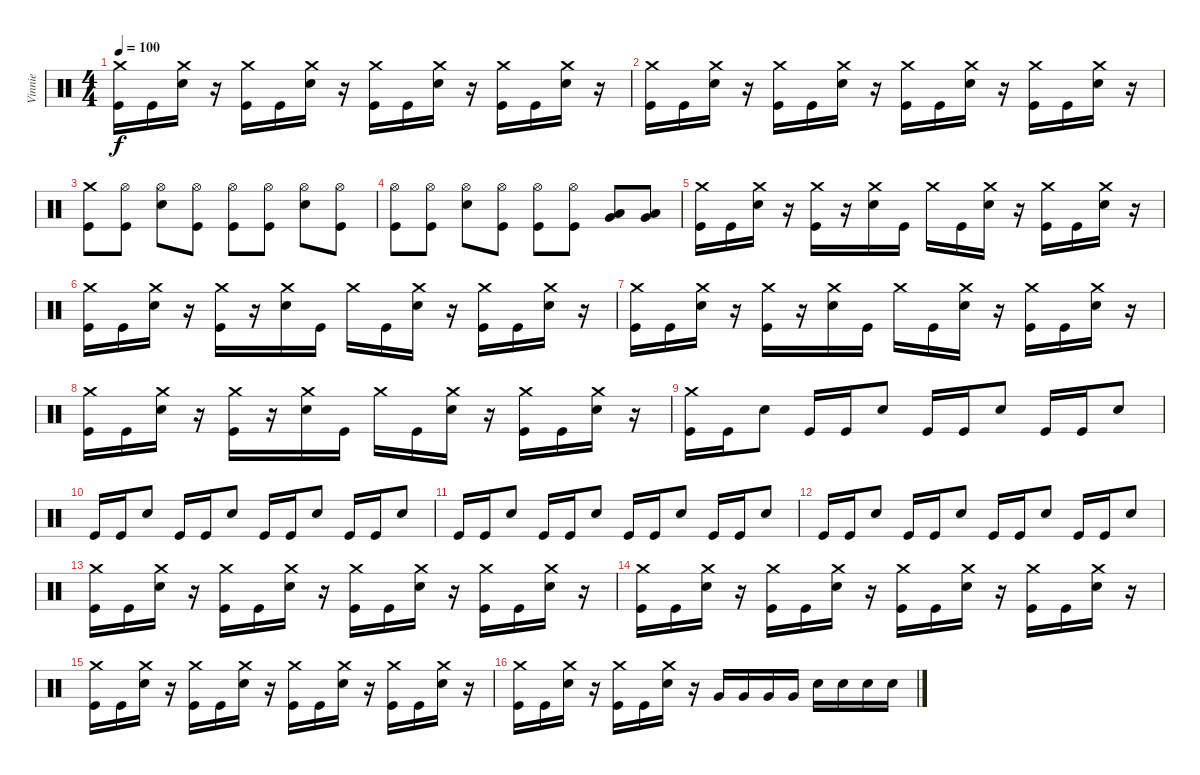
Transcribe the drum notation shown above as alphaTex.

\track ("Vinnie" "Vinnie") {instrument percussion}
\staff {score}
\articulation defaults
\ts (4 4)
\tempo 100
\clef neutral
\ks c
("Crash medium (hit)" "Kick (hit)").16{dy f} "Kick (hit)".16 ("Crash medium (hit)" "Electric Snare (hit)").16 r.16 ("Crash medium (hit)" "Kick (hit)").16 "Kick (hit)".16 ("Crash medium (hit)" "Electric Snare (hit)").16 r.16 ("Crash medium (hit)" "Kick (hit)").16 "Kick (hit)".16 ("Crash medium (hit)" "Electric Snare (hit)").16 r.16 ("Crash medium (hit)" "Kick (hit)").16 "Kick (hit)".16 ("Crash medium (hit)" "Electric Snare (hit)").16 r.16 |
("Crash medium (hit)" "Kick (hit)").16 "Kick (hit)".16 ("Crash medium (hit)" "Electric Snare (hit)").16 r.16 ("Crash medium (hit)" "Kick (hit)").16 "Kick (hit)".16 ("Crash medium (hit)" "Electric Snare (hit)").16 r.16 ("Crash medium (hit)" "Kick (hit)").16 "Kick (hit)".16 ("Crash medium (hit)" "Electric Snare (hit)").16 r.16 ("Crash medium (hit)" "Kick (hit)").16 "Kick (hit)".16 ("Crash medium (hit)" "Electric Snare (hit)").16 r.16 |
("Crash medium (hit)" "Kick (hit)").8 ("Hi-Hat (open)" "Kick (hit)").8 ("Hi-Hat (open)" "Electric Snare (hit)").8 ("Hi-Hat (open)" "Kick (hit)").8 ("Hi-Hat (open)" "Kick (hit)").8 ("Hi-Hat (open)" "Kick (hit)").8 ("Hi-Hat (open)" "Electric Snare (hit)").8 ("Hi-Hat (open)" "Kick (hit)").8 |
("Hi-Hat (open)" "Kick (hit)").8 ("Hi-Hat (open)" "Kick (hit)").8 ("Hi-Hat (open)" "Electric Snare (hit)").8 ("Hi-Hat (open)" "Kick (hit)").8 ("Hi-Hat (open)" "Kick (hit)").8 ("Hi-Hat (open)" "Kick (hit)").8 ("Low Tom (hit)" "Very Low Tom (hit)").8 ("Low Tom (hit)" "Very Low Tom (hit)").8 |
("Crash medium (hit)" "Kick (hit)").16 "Kick (hit)".16 ("Crash medium (hit)" "Electric Snare (hit)").16 r.16 ("Crash medium (hit)" "Kick (hit)").16 r.16 ("Crash medium (hit)" "Electric Snare (hit)").16 "Kick (hit)".16 "Crash medium (hit)".16 "Kick (hit)".16 ("Crash medium (hit)" "Electric Snare (hit)").16 r.16 ("Crash medium (hit)" "Kick (hit)").16 "Kick (hit)".16 ("Crash medium (hit)" "Electric Snare (hit)").16 r.16 |
("Crash medium (hit)" "Kick (hit)").16 "Kick (hit)".16 ("Crash medium (hit)" "Electric Snare (hit)").16 r.16 ("Crash medium (hit)" "Kick (hit)").16 r.16 ("Crash medium (hit)" "Electric Snare (hit)").16 "Kick (hit)".16 "Crash medium (hit)".16 "Kick (hit)".16 ("Crash medium (hit)" "Electric Snare (hit)").16 r.16 ("Crash medium (hit)" "Kick (hit)").16 "Kick (hit)".16 ("Crash medium (hit)" "Electric Snare (hit)").16 r.16 |
("Crash medium (hit)" "Kick (hit)").16 "Kick (hit)".16 ("Crash medium (hit)" "Electric Snare (hit)").16 r.16 ("Crash medium (hit)" "Kick (hit)").16 r.16 ("Crash medium (hit)" "Electric Snare (hit)").16 "Kick (hit)".16 "Crash medium (hit)".16 "Kick (hit)".16 ("Crash medium (hit)" "Electric Snare (hit)").16 r.16 ("Crash medium (hit)" "Kick (hit)").16 "Kick (hit)".16 ("Crash medium (hit)" "Electric Snare (hit)").16 r.16 |
("Crash medium (hit)" "Kick (hit)").16 "Kick (hit)".16 ("Crash medium (hit)" "Electric Snare (hit)").16 r.16 ("Crash medium (hit)" "Kick (hit)").16 r.16 ("Crash medium (hit)" "Electric Snare (hit)").16 "Kick (hit)".16 "Crash medium (hit)".16 "Kick (hit)".16 ("Crash medium (hit)" "Electric Snare (hit)").16 r.16 ("Crash medium (hit)" "Kick (hit)").16 "Kick (hit)".16 ("Crash medium (hit)" "Electric Snare (hit)").16 r.16 |
("Crash medium (hit)" "Kick (hit)").16 "Kick (hit)".16 "Electric Snare (hit)".8 "Kick (hit)".16 "Kick (hit)".16 "Electric Snare (hit)".8 "Kick (hit)".16 "Kick (hit)".16 "Electric Snare (hit)".8 "Kick (hit)".16 "Kick (hit)".16 "Electric Snare (hit)".8 |
"Kick (hit)".16 "Kick (hit)".16 "Electric Snare (hit)".8 "Kick (hit)".16 "Kick (hit)".16 "Electric Snare (hit)".8 "Kick (hit)".16 "Kick (hit)".16 "Electric Snare (hit)".8 "Kick (hit)".16 "Kick (hit)".16 "Electric Snare (hit)".8 |
"Kick (hit)".16 "Kick (hit)".16 "Electric Snare (hit)".8 "Kick (hit)".16 "Kick (hit)".16 "Electric Snare (hit)".8 "Kick (hit)".16 "Kick (hit)".16 "Electric Snare (hit)".8 "Kick (hit)".16 "Kick (hit)".16 "Electric Snare (hit)".8 |
"Kick (hit)".16 "Kick (hit)".16 "Electric Snare (hit)".8 "Kick (hit)".16 "Kick (hit)".16 "Electric Snare (hit)".8 "Kick (hit)".16 "Kick (hit)".16 "Electric Snare (hit)".8 "Kick (hit)".16 "Kick (hit)".16 "Electric Snare (hit)".8 |
("Crash medium (hit)" "Kick (hit)").16 "Kick (hit)".16 ("Crash medium (hit)" "Electric Snare (hit)").16 r.16 ("Crash medium (hit)" "Kick (hit)").16 "Kick (hit)".16 ("Crash medium (hit)" "Electric Snare (hit)").16 r.16 ("Crash medium (hit)" "Kick (hit)").16 "Kick (hit)".16 ("Crash medium (hit)" "Electric Snare (hit)").16 r.16 ("Crash medium (hit)" "Kick (hit)").16 "Kick (hit)".16 ("Crash medium (hit)" "Electric Snare (hit)").16 r.16 |
("Crash medium (hit)" "Kick (hit)").16 "Kick (hit)".16 ("Crash medium (hit)" "Electric Snare (hit)").16 r.16 ("Crash medium (hit)" "Kick (hit)").16 "Kick (hit)".16 ("Crash medium (hit)" "Electric Snare (hit)").16 r.16 ("Crash medium (hit)" "Kick (hit)").16 "Kick (hit)".16 ("Crash medium (hit)" "Electric Snare (hit)").16 r.16 ("Crash medium (hit)" "Kick (hit)").16 "Kick (hit)".16 ("Crash medium (hit)" "Electric Snare (hit)").16 r.16 |
("Crash medium (hit)" "Kick (hit)").16 "Kick (hit)".16 ("Crash medium (hit)" "Electric Snare (hit)").16 r.16 ("Crash medium (hit)" "Kick (hit)").16 "Kick (hit)".16 ("Crash medium (hit)" "Electric Snare (hit)").16 r.16 ("Crash medium (hit)" "Kick (hit)").16 "Kick (hit)".16 ("Crash medium (hit)" "Electric Snare (hit)").16 r.16 ("Crash medium (hit)" "Kick (hit)").16 "Kick (hit)".16 ("Crash medium (hit)" "Electric Snare (hit)").16 r.16 |
("Crash medium (hit)" "Kick (hit)").16 "Kick (hit)".16 ("Crash medium (hit)" "Electric Snare (hit)").16 r.16 ("Crash medium (hit)" "Kick (hit)").16 "Kick (hit)".16 ("Crash medium (hit)" "Electric Snare (hit)").16 r.16 "Very Low Tom (hit)".16 "Very Low Tom (hit)".16 "Very Low Tom (hit)".16 "Very Low Tom (hit)".16 "Electric Snare (hit)".16 "Electric Snare (hit)".16 "Electric Snare (hit)".16 "Electric Snare (hit)".16
